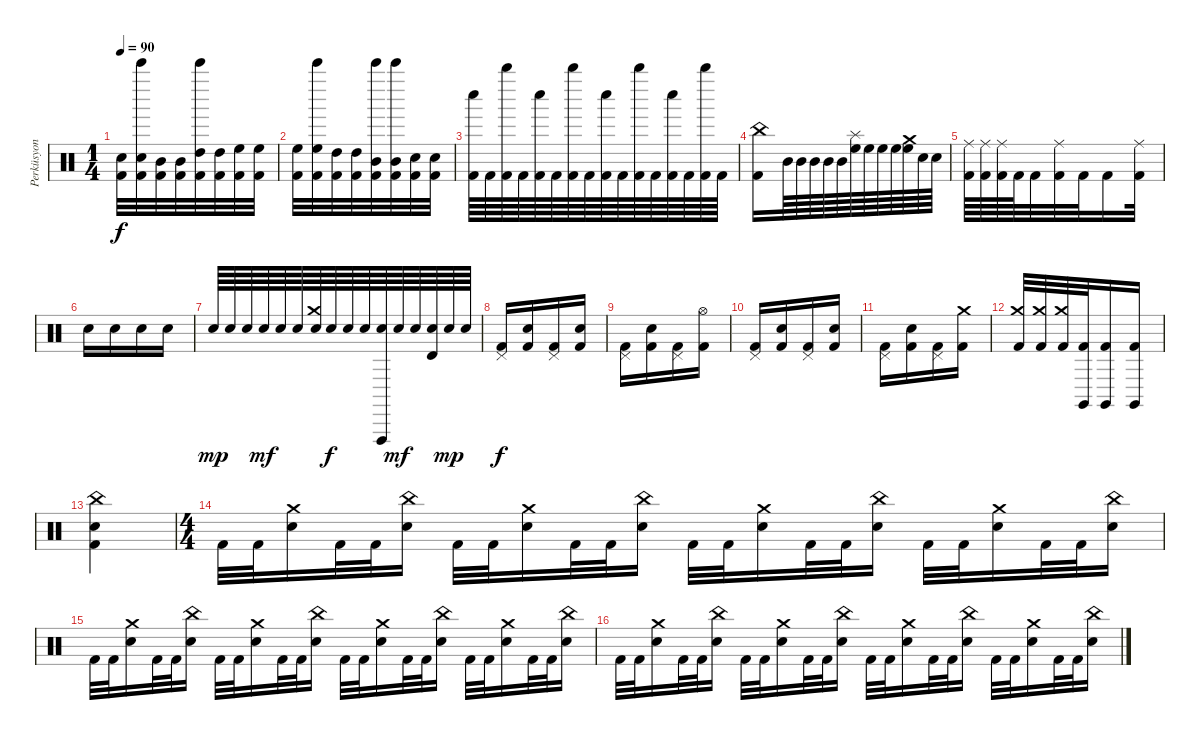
\track ("Perküsyon" "Perküsyon") {instrument percussion}
\staff {score}
\articulation defaults
\ts (1 4)
\tempo 90
\clef neutral
\ks c
("Electric Snare (hit)" "Kick (hit) 2").32{dy f} ("Bell Tree (hit)" "Electric Snare (hit)" "Kick (hit) 2").32 ("Mid Tom (hit)" "Kick (hit) 2").32 ("Mid Tom (hit)" "Kick (hit) 2").32 ("Bell Tree (hit)" "High Tom (hit)" "Kick (hit) 2").32 ("High Tom (hit)" "Kick (hit) 2").32 ("High Floor Tom (hit)" "Kick (hit) 2").32 ("High Floor Tom (hit)" "Kick (hit) 2").32 |
("High Floor Tom (hit)" "Kick (hit) 2").32 ("Bell Tree (hit)" "High Floor Tom (hit)" "Kick (hit) 2").32 ("High Tom (hit)" "Kick (hit) 2").32 ("High Tom (hit)" "Kick (hit) 2").32 ("Bell Tree (hit)" "Mid Tom (hit)" "Kick (hit) 2").32 ("Bell Tree (hit)" "Mid Tom (hit)" "Kick (hit) 2").32 ("Electric Snare (hit)" "Kick (hit) 2").32 ("Electric Snare (hit)" "Kick (hit) 2").32 |
("Whistle low (hit)" "Kick (hit) 2").64 "Kick (hit) 2".64 ("Whistle high (hit)" "Kick (hit) 2").64 "Kick (hit) 2".64 ("Whistle low (hit)" "Kick (hit) 2").64 "Kick (hit) 2".64 ("Whistle high (hit)" "Kick (hit) 2").64 "Kick (hit) 2".64 ("Whistle low (hit)" "Kick (hit) 2").64 "Kick (hit) 2".64 ("Whistle high (hit)" "Kick (hit) 2").64 "Kick (hit) 2".64 ("Whistle low (hit)" "Kick (hit) 2").64 "Kick (hit) 2".64 ("Whistle high (hit)" "Kick (hit) 2").64 "Kick (hit) 2".64 |
("China (hit)" "Kick (hit) 2").16 "Mid Tom (hit)".64 "Mid Tom (hit)".64 "Mid Tom (hit)".64 "Mid Tom (hit)".64 "Mid Tom (hit)".64 ("Splash (hit)" "High Floor Tom (hit)").64 "High Floor Tom (hit)".64 "High Floor Tom (hit)".64 "High Floor Tom (hit)".64 ("Crash medium (hit)" "High Floor Tom (hit)").64 "Electric Snare (hit)".64 "Electric Snare (hit)".64 |
("Ride (middle)" "Kick (hit) 2").64 ("Ride (middle)" "Kick (hit) 2").64 ("Ride (middle)" "Kick (hit) 2").64 "Kick (hit) 2".64 "Kick (hit) 2".32 ("Ride (middle)" "Kick (hit) 2").32 "Kick (hit) 2".32 "Kick (hit) 2".16 ("Ride (middle)" "Kick (hit) 2").32 |
"Electric Snare (hit)".16 "Electric Snare (hit)".16 "Electric Snare (hit)".16 "Electric Snare (hit)".16 |
"Electric Snare (hit)".64{dy mp} "Electric Snare (hit)".64 "Electric Snare (hit)".64 "Electric Snare (hit)".64{dy mf} "Electric Snare (hit)".64 "Electric Snare (hit)".64 ("Crash medium (hit)" "Electric Snare (hit)").64 "Electric Snare (hit)".64{dy f} "Electric Snare (hit)".64 "Electric Snare (hit)".64 ("Vibraslap (hit)" "Electric Snare (hit)").64 "Electric Snare (hit)".64{dy mf} "Electric Snare (hit)".64 ("Timbale high (hit)" "Electric Snare (hit)").64 "Electric Snare (hit)".64{dy mp} "Electric Snare (hit)".64 |
("Pedal Hi-Hat (hit)" "Kick (hit) 2").16{dy f} ("Electric Snare (hit)" "Kick (hit) 2").16 ("Pedal Hi-Hat (hit)" "Kick (hit) 2").16 ("Electric Snare (hit)" "Kick (hit) 2").16 |
("Pedal Hi-Hat (hit)" "Kick (hit) 2").16 ("Electric Snare (hit)" "Kick (hit) 2").16 ("Pedal Hi-Hat (hit)" "Kick (hit) 2").16 ("Hi-Hat (open)" "Kick (hit) 2").16 |
("Pedal Hi-Hat (hit)" "Kick (hit) 2").16 ("Electric Snare (hit)" "Kick (hit) 2").16 ("Pedal Hi-Hat (hit)" "Kick (hit) 2").16 ("Electric Snare (hit)" "Kick (hit) 2").16 |
("Pedal Hi-Hat (hit)" "Kick (hit) 2").16 ("Electric Snare (hit)" "Kick (hit) 2").16 ("Pedal Hi-Hat (hit)" "Kick (hit) 2").16 ("Crash medium (hit)" "Kick (hit) 2").16 |
("Crash medium (hit)" "Kick (hit) 2").32 ("Crash medium (hit)" "Kick (hit) 2").32 ("Crash medium (hit)" "Kick (hit) 2").32 ("Claves (hit)" "Kick (hit) 2").32 ("Claves (hit)" "Kick (hit) 2").16 ("Claves (hit)" "Kick (hit) 2").16 |
("China (hit)" "Electric Snare (hit)" "Kick (hit) 2").4 |
\ts (4 4)
"Kick (hit) 2".32 "Kick (hit) 2".32 ("Crash medium (hit)" "Electric Snare (hit)").16 "Kick (hit) 2".32 "Kick (hit) 2".32 ("China (hit)" "Electric Snare (hit)").16 "Kick (hit) 2".32 "Kick (hit) 2".32 ("Crash medium (hit)" "Electric Snare (hit)").16 "Kick (hit) 2".32 "Kick (hit) 2".32 ("China (hit)" "Electric Snare (hit)").16 "Kick (hit) 2".32 "Kick (hit) 2".32 ("Crash medium (hit)" "Electric Snare (hit)").16 "Kick (hit) 2".32 "Kick (hit) 2".32 ("China (hit)" "Electric Snare (hit)").16 "Kick (hit) 2".32 "Kick (hit) 2".32 ("Crash medium (hit)" "Electric Snare (hit)").16 "Kick (hit) 2".32 "Kick (hit) 2".32 ("China (hit)" "Electric Snare (hit)").16 |
"Kick (hit) 2".32 "Kick (hit) 2".32 ("Crash medium (hit)" "Electric Snare (hit)").16 "Kick (hit) 2".32 "Kick (hit) 2".32 ("China (hit)" "Electric Snare (hit)").16 "Kick (hit) 2".32 "Kick (hit) 2".32 ("Crash medium (hit)" "Electric Snare (hit)").16 "Kick (hit) 2".32 "Kick (hit) 2".32 ("China (hit)" "Electric Snare (hit)").16 "Kick (hit) 2".32 "Kick (hit) 2".32 ("Crash medium (hit)" "Electric Snare (hit)").16 "Kick (hit) 2".32 "Kick (hit) 2".32 ("China (hit)" "Electric Snare (hit)").16 "Kick (hit) 2".32 "Kick (hit) 2".32 ("Crash medium (hit)" "Electric Snare (hit)").16 "Kick (hit) 2".32 "Kick (hit) 2".32 ("China (hit)" "Electric Snare (hit)").16 |
"Kick (hit) 2".32 "Kick (hit) 2".32 ("Crash medium (hit)" "Electric Snare (hit)").16 "Kick (hit) 2".32 "Kick (hit) 2".32 ("China (hit)" "Electric Snare (hit)").16 "Kick (hit) 2".32 "Kick (hit) 2".32 ("Crash medium (hit)" "Electric Snare (hit)").16 "Kick (hit) 2".32 "Kick (hit) 2".32 ("China (hit)" "Electric Snare (hit)").16 "Kick (hit) 2".32 "Kick (hit) 2".32 ("Crash medium (hit)" "Electric Snare (hit)").16 "Kick (hit) 2".32 "Kick (hit) 2".32 ("China (hit)" "Electric Snare (hit)").16 "Kick (hit) 2".32 "Kick (hit) 2".32 ("Crash medium (hit)" "Electric Snare (hit)").16 "Kick (hit) 2".32 "Kick (hit) 2".32 ("China (hit)" "Electric Snare (hit)").16
